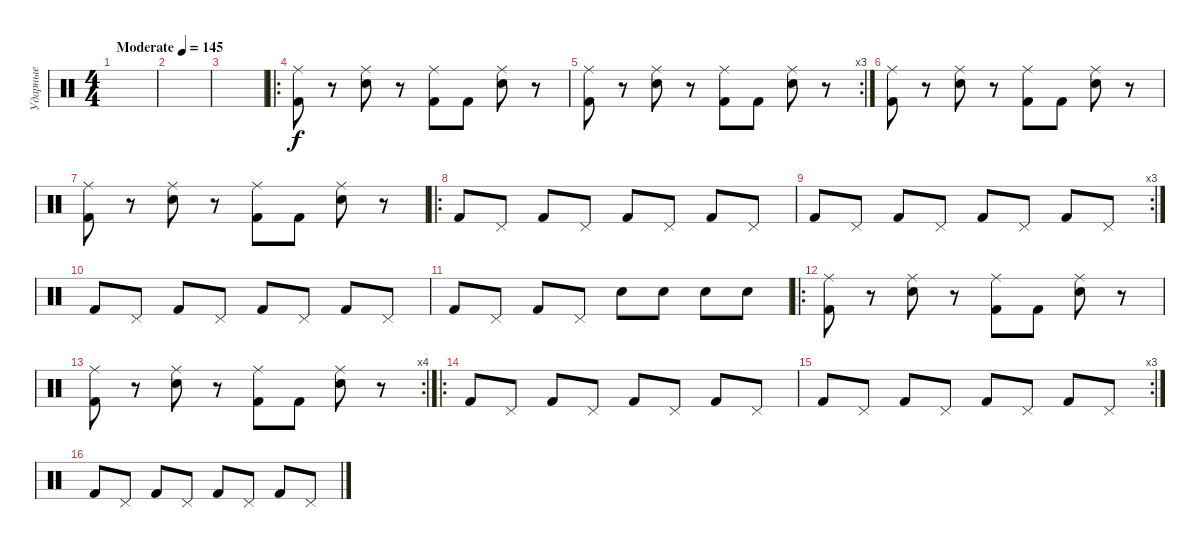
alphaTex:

\track ("Ударные" "Ударные") {instrument percussion}
\staff {score}
\articulation defaults
\ts (4 4)
\tempo (145 "Moderate")
\clef neutral
\ks c
|
|
|
\ro
("Ride (middle)" "Kick (hit) 2").8 r.8 ("Ride (middle)" "Snare (hit) 2").8 r.8 ("Ride (middle)" "Kick (hit) 2").8 "Kick (hit) 2".8 ("Ride (middle)" "Snare (hit) 2").8 r.8 |
\rc 3
("Ride (middle)" "Kick (hit) 2").8 r.8 ("Ride (middle)" "Snare (hit) 2").8 r.8 ("Ride (middle)" "Kick (hit) 2").8 "Kick (hit) 2".8 ("Ride (middle)" "Snare (hit) 2").8 r.8 |
("Ride (middle)" "Kick (hit) 2").8 r.8 ("Ride (middle)" "Snare (hit) 2").8 r.8 ("Ride (middle)" "Kick (hit) 2").8 "Kick (hit) 2".8 ("Ride (middle)" "Snare (hit) 2").8 r.8 |
("Ride (middle)" "Kick (hit) 2").8 r.8 ("Ride (middle)" "Snare (hit) 2").8 r.8 ("Ride (middle)" "Kick (hit) 2").8 "Kick (hit) 2".8 ("Ride (middle)" "Snare (hit) 2").8 r.8 |
\ro "Kick (hit) 2".8 "Pedal Hi-Hat (hit)".8 "Kick (hit) 2".8 "Pedal Hi-Hat (hit)".8 "Kick (hit) 2".8 "Pedal Hi-Hat (hit)".8 "Kick (hit) 2".8 "Pedal Hi-Hat (hit)".8
|
\rc 3 "Kick (hit) 2".8 "Pedal Hi-Hat (hit)".8 "Kick (hit) 2".8 "Pedal Hi-Hat (hit)".8 "Kick (hit) 2".8 "Pedal Hi-Hat (hit)".8 "Kick (hit) 2".8 "Pedal Hi-Hat (hit)".8
|
"Kick (hit) 2".8 "Pedal Hi-Hat (hit)".8 "Kick (hit) 2".8 "Pedal Hi-Hat (hit)".8 "Kick (hit) 2".8 "Pedal Hi-Hat (hit)".8 "Kick (hit) 2".8 "Pedal Hi-Hat (hit)".8 |
"Kick (hit) 2".8 "Pedal Hi-Hat (hit)".8 "Kick (hit) 2".8 "Pedal Hi-Hat (hit)".8 "Electric Snare (hit)".8 "Electric Snare (hit)".8 "Electric Snare (hit)".8 "Electric Snare (hit)".8 |
\ro
("Ride (middle)" "Kick (hit) 2").8 r.8 ("Ride (middle)" "Snare (hit) 2").8 r.8 ("Ride (middle)" "Kick (hit) 2").8 "Kick (hit) 2".8 ("Ride (middle)" "Snare (hit) 2").8 r.8 |
\rc 4
("Ride (middle)" "Kick (hit) 2").8 r.8 ("Ride (middle)" "Snare (hit) 2").8 r.8 ("Ride (middle)" "Kick (hit) 2").8 "Kick (hit) 2".8 ("Ride (middle)" "Snare (hit) 2").8 r.8 |
\ro "Kick (hit) 2".8 "Pedal Hi-Hat (hit)".8 "Kick (hit) 2".8 "Pedal Hi-Hat (hit)".8 "Kick (hit) 2".8 "Pedal Hi-Hat (hit)".8 "Kick (hit) 2".8 "Pedal Hi-Hat (hit)".8
|
\rc 3 "Kick (hit) 2".8 "Pedal Hi-Hat (hit)".8 "Kick (hit) 2".8 "Pedal Hi-Hat (hit)".8 "Kick (hit) 2".8 "Pedal Hi-Hat (hit)".8 "Kick (hit) 2".8 "Pedal Hi-Hat (hit)".8
|
"Kick (hit) 2".8 "Pedal Hi-Hat (hit)".8 "Kick (hit) 2".8 "Pedal Hi-Hat (hit)".8 "Kick (hit) 2".8 "Pedal Hi-Hat (hit)".8 "Kick (hit) 2".8 "Pedal Hi-Hat (hit)".8
